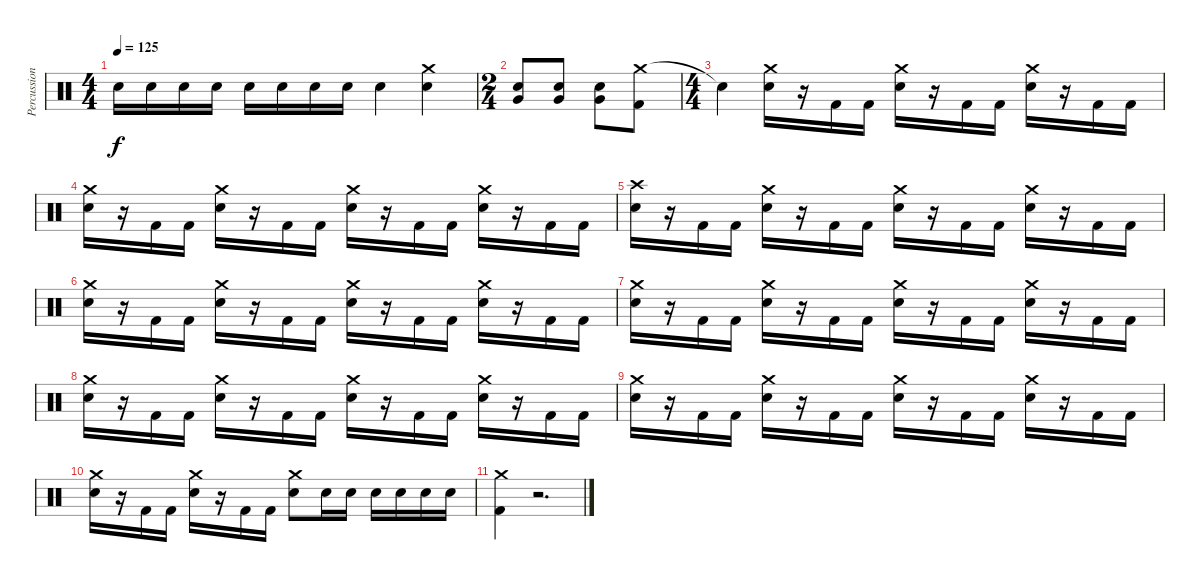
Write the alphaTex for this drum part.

\track ("Percussion" "Percussion") {instrument percussion}
\staff {score}
\articulation defaults
\ts (4 4)
\tempo 125
\clef neutral
\ks c "Electric Snare (hit)".16{dy f} "Electric Snare (hit)".16 "Electric Snare (hit)".16 "Electric Snare (hit)".16 "Electric Snare (hit)".16 "Electric Snare (hit)".16 "Electric Snare (hit)".16 "Electric Snare (hit)".16 "Electric Snare (hit)".4
("Crash medium (hit)" "Electric Snare (hit)").4 |
\ts (2 4)
("Electric Snare (hit)" "Very Low Tom (hit)").8 ("Electric Snare (hit)" "Very Low Tom (hit)").8 ("Electric Snare (hit)" "Very Low Tom (hit)").8 ("Crash medium (hit)" "Kick (hit) 2").8 |
\ts (4 4)
"Snare (hit)"{t}.4 ("Crash medium (hit)" "Electric Snare (hit)").16 r.16 "Kick (hit) 2".16 "Kick (hit) 2".16 ("Crash medium (hit)" "Electric Snare (hit)").16 r.16 "Kick (hit) 2".16 "Kick (hit) 2".16 ("Crash medium (hit)" "Electric Snare (hit)").16 r.16 "Kick (hit) 2".16 "Kick (hit) 2".16 |
("Crash medium (hit)" "Electric Snare (hit)").16 r.16 "Kick (hit) 2".16 "Kick (hit) 2".16 ("Crash medium (hit)" "Electric Snare (hit)").16 r.16 "Kick (hit) 2".16 "Kick (hit) 2".16 ("Crash medium (hit)" "Electric Snare (hit)").16 r.16 "Kick (hit) 2".16 "Kick (hit) 2".16 ("Crash medium (hit)" "Electric Snare (hit)").16 r.16 "Kick (hit) 2".16 "Kick (hit) 2".16 |
("Crash high (hit)" "Electric Snare (hit)").16 r.16 "Kick (hit) 2".16 "Kick (hit) 2".16 ("Crash medium (hit)" "Electric Snare (hit)").16 r.16 "Kick (hit) 2".16 "Kick (hit) 2".16 ("Crash medium (hit)" "Electric Snare (hit)").16 r.16 "Kick (hit) 2".16 "Kick (hit) 2".16 ("Crash medium (hit)" "Electric Snare (hit)").16 r.16 "Kick (hit) 2".16 "Kick (hit) 2".16 |
("Crash medium (hit)" "Electric Snare (hit)").16 r.16 "Kick (hit) 2".16 "Kick (hit) 2".16 ("Crash medium (hit)" "Electric Snare (hit)").16 r.16 "Kick (hit) 2".16 "Kick (hit) 2".16 ("Crash medium (hit)" "Electric Snare (hit)").16 r.16 "Kick (hit) 2".16 "Kick (hit) 2".16 ("Crash medium (hit)" "Electric Snare (hit)").16 r.16 "Kick (hit) 2".16 "Kick (hit) 2".16 |
("Crash medium (hit)" "Electric Snare (hit)").16 r.16 "Kick (hit) 2".16 "Kick (hit) 2".16 ("Crash medium (hit)" "Electric Snare (hit)").16 r.16 "Kick (hit) 2".16 "Kick (hit) 2".16 ("Crash medium (hit)" "Electric Snare (hit)").16 r.16 "Kick (hit) 2".16 "Kick (hit) 2".16 ("Crash medium (hit)" "Electric Snare (hit)").16 r.16 "Kick (hit) 2".16 "Kick (hit) 2".16 |
("Crash medium (hit)" "Electric Snare (hit)").16 r.16 "Kick (hit) 2".16 "Kick (hit) 2".16 ("Crash medium (hit)" "Electric Snare (hit)").16 r.16 "Kick (hit) 2".16 "Kick (hit) 2".16 ("Crash medium (hit)" "Electric Snare (hit)").16 r.16 "Kick (hit) 2".16 "Kick (hit) 2".16 ("Crash medium (hit)" "Electric Snare (hit)").16 r.16 "Kick (hit) 2".16 "Kick (hit) 2".16 |
("Crash medium (hit)" "Electric Snare (hit)").16 r.16 "Kick (hit) 2".16 "Kick (hit) 2".16 ("Crash medium (hit)" "Electric Snare (hit)").16 r.16 "Kick (hit) 2".16 "Kick (hit) 2".16 ("Crash medium (hit)" "Electric Snare (hit)").16 r.16 "Kick (hit) 2".16 "Kick (hit) 2".16 ("Crash medium (hit)" "Electric Snare (hit)").16 r.16 "Kick (hit) 2".16 "Kick (hit) 2".16 |
("Crash medium (hit)" "Electric Snare (hit)").16 r.16 "Kick (hit) 2".16 "Kick (hit) 2".16 ("Crash medium (hit)" "Electric Snare (hit)").16 r.16 "Kick (hit) 2".16 "Kick (hit) 2".16 ("Crash medium (hit)" "Electric Snare (hit)").8 "Electric Snare (hit)".16 "Electric Snare (hit)".16 "Electric Snare (hit)".16 "Electric Snare (hit)".16 "Electric Snare (hit)".16 "Electric Snare (hit)".16 |
("Crash medium (hit)" "Kick (hit) 2").4 r.2{d}
